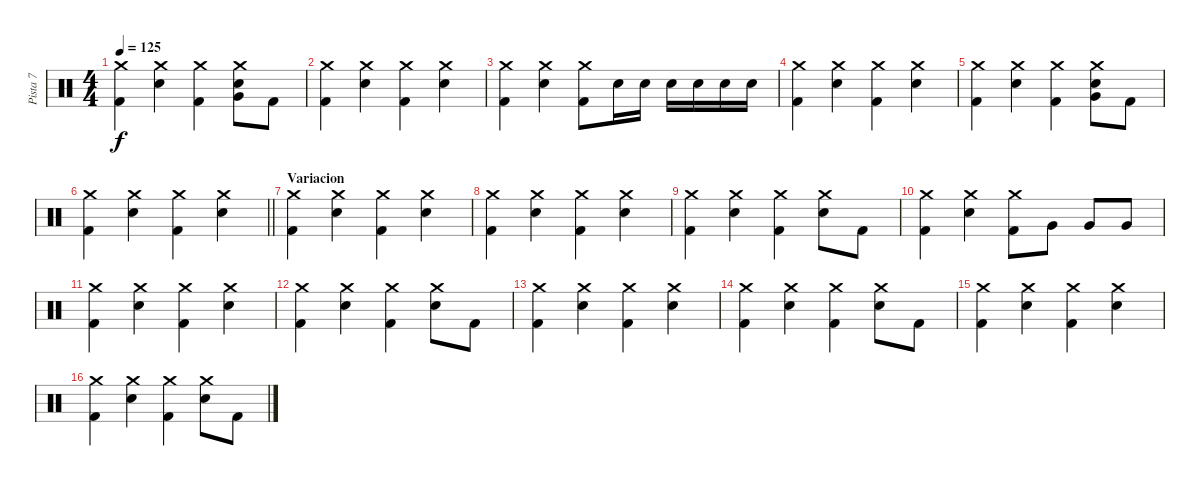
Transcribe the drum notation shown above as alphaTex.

\track ("Pista 7" "Pista 7") {instrument percussion}
\staff {score}
\articulation defaults
\ts (4 4)
\tempo 125
\clef neutral
\ks c
("Crash medium (hit)" "Kick (hit) 2").4{dy f} ("Crash medium (hit)" "Electric Snare (hit)").4 ("Crash medium (hit)" "Kick (hit) 2").4 ("Crash medium (hit)" "Very Low Tom (hit)" "Electric Snare (hit)").8 "Kick (hit) 2".8 |
("Crash medium (hit)" "Kick (hit) 2").4 ("Crash medium (hit)" "Electric Snare (hit)").4 ("Crash medium (hit)" "Kick (hit) 2").4 ("Crash medium (hit)" "Electric Snare (hit)").4 |
("Crash medium (hit)" "Kick (hit) 2").4 ("Crash medium (hit)" "Electric Snare (hit)").4 ("Crash medium (hit)" "Kick (hit) 2").8 "Electric Snare (hit)".16 "Electric Snare (hit)".16 "Electric Snare (hit)".16 "Electric Snare (hit)".16 "Electric Snare (hit)".16 "Electric Snare (hit)".16 |
("Crash medium (hit)" "Kick (hit) 2").4 ("Crash medium (hit)" "Electric Snare (hit)").4 ("Crash medium (hit)" "Kick (hit) 2").4 ("Crash medium (hit)" "Electric Snare (hit)").4 |
("Crash medium (hit)" "Kick (hit) 2").4 ("Crash medium (hit)" "Electric Snare (hit)").4 ("Crash medium (hit)" "Kick (hit) 2").4 ("Crash medium (hit)" "Very Low Tom (hit)" "Electric Snare (hit)").8 "Kick (hit) 2".8 |
\barLineRight lightlight
("Crash medium (hit)" "Kick (hit) 2").4 ("Crash medium (hit)" "Electric Snare (hit)").4 ("Crash medium (hit)" "Kick (hit) 2").4 ("Crash medium (hit)" "Electric Snare (hit)").4 |
\section ("" "Variacion")
("Crash medium (hit)" "Kick (hit) 2").4 ("Crash medium (hit)" "Electric Snare (hit)").4 ("Crash medium (hit)" "Kick (hit) 2").4 ("Crash medium (hit)" "Electric Snare (hit)").4 |
("Crash medium (hit)" "Kick (hit) 2").4 ("Crash medium (hit)" "Electric Snare (hit)").4 ("Crash medium (hit)" "Kick (hit) 2").4 ("Crash medium (hit)" "Electric Snare (hit)").4 |
("Crash medium (hit)" "Kick (hit) 2").4 ("Crash medium (hit)" "Electric Snare (hit)").4 ("Crash medium (hit)" "Kick (hit) 2").4 ("Crash medium (hit)" "Electric Snare (hit)").8 "Kick (hit) 2".8 |
("Crash medium (hit)" "Kick (hit) 2").4 ("Crash medium (hit)" "Electric Snare (hit)").4 ("Crash medium (hit)" "Kick (hit) 2").8 "Very Low Tom (hit)".8 "Very Low Tom (hit)".8 "Very Low Tom (hit)".8 |
("Crash medium (hit)" "Kick (hit) 2").4 ("Crash medium (hit)" "Electric Snare (hit)").4 ("Crash medium (hit)" "Kick (hit) 2").4 ("Crash medium (hit)" "Electric Snare (hit)").4 |
("Crash medium (hit)" "Kick (hit) 2").4 ("Crash medium (hit)" "Electric Snare (hit)").4 ("Crash medium (hit)" "Kick (hit) 2").4 ("Crash medium (hit)" "Electric Snare (hit)").8 "Kick (hit) 2".8 |
("Crash medium (hit)" "Kick (hit) 2").4 ("Crash medium (hit)" "Electric Snare (hit)").4 ("Crash medium (hit)" "Kick (hit) 2").4 ("Crash medium (hit)" "Electric Snare (hit)").4 |
("Crash medium (hit)" "Kick (hit) 2").4 ("Crash medium (hit)" "Electric Snare (hit)").4 ("Crash medium (hit)" "Kick (hit) 2").4 ("Crash medium (hit)" "Electric Snare (hit)").8 "Kick (hit) 2".8 |
("Crash medium (hit)" "Kick (hit) 2").4 ("Crash medium (hit)" "Electric Snare (hit)").4 ("Crash medium (hit)" "Kick (hit) 2").4 ("Crash medium (hit)" "Electric Snare (hit)").4 |
("Crash medium (hit)" "Kick (hit) 2").4 ("Crash medium (hit)" "Electric Snare (hit)").4 ("Crash medium (hit)" "Kick (hit) 2").4 ("Crash medium (hit)" "Electric Snare (hit)").8 "Kick (hit) 2".8
